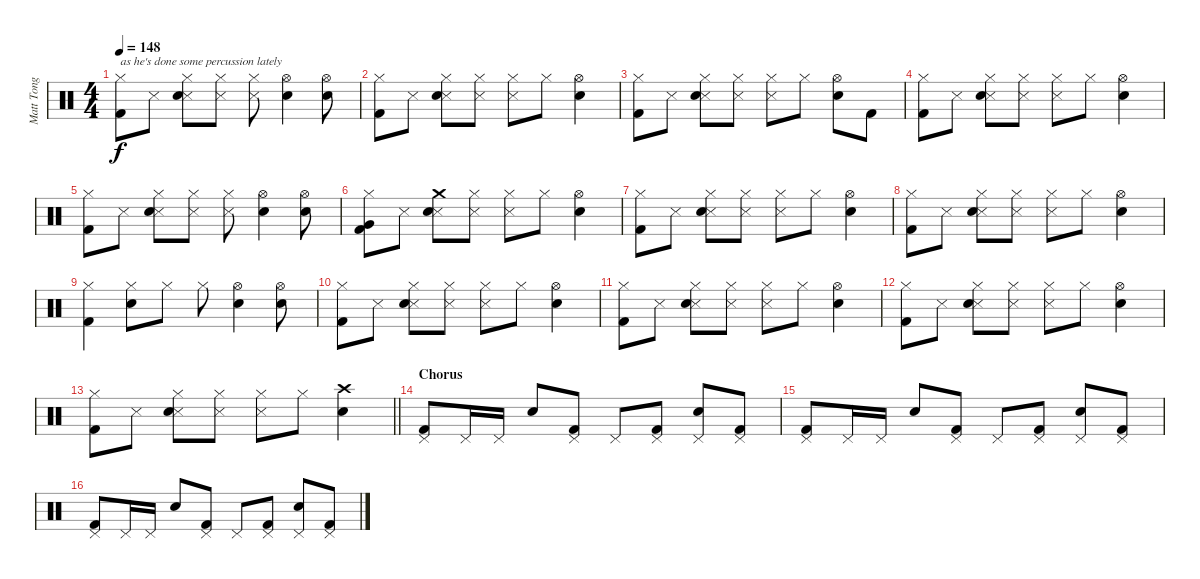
\track ("Matt Tong" "Matt Tong") {instrument percussion}
\staff {score}
\articulation defaults
\ts (4 4)
\tempo 148
\clef neutral
\ks c
("Hi-Hat (closed)" "Kick (hit) 2").8{txt "as he's done some percussion lately" dy f} "Snare (side stick) 3".8 ("Hi-Hat (closed)" "Snare (side stick) 3" "Electric Snare (hit)").8 ("Hi-Hat (closed)" "Snare (side stick) 3").8 ("Hi-Hat (closed)" "Snare (side stick) 3").8 ("Hi-Hat (open)" "Electric Snare (hit)").4 ("Hi-Hat (open)" "Electric Snare (hit)").8 |
("Hi-Hat (closed)" "Kick (hit) 2").8 "Snare (side stick) 3".8 ("Hi-Hat (closed)" "Snare (side stick) 3" "Electric Snare (hit)").8 ("Hi-Hat (closed)" "Snare (side stick) 3").8 ("Hi-Hat (closed)" "Snare (side stick) 3").8 "Hi-Hat (closed)".8 ("Hi-Hat (open)" "Electric Snare (hit)").4 |
("Hi-Hat (closed)" "Kick (hit) 2").8 "Snare (side stick) 3".8 ("Hi-Hat (closed)" "Snare (side stick) 3" "Electric Snare (hit)").8 ("Hi-Hat (closed)" "Snare (side stick) 3").8 ("Hi-Hat (closed)" "Snare (side stick) 3").8 "Hi-Hat (closed)".8 ("Hi-Hat (open)" "Electric Snare (hit)").8 "Kick (hit) 2".8 |
("Hi-Hat (closed)" "Kick (hit) 2").8 "Snare (side stick) 3".8 ("Hi-Hat (closed)" "Snare (side stick) 3" "Electric Snare (hit)").8 ("Hi-Hat (closed)" "Snare (side stick) 3").8 ("Hi-Hat (closed)" "Snare (side stick) 3").8 "Hi-Hat (closed)".8 ("Hi-Hat (open)" "Electric Snare (hit)").4 |
("Hi-Hat (closed)" "Kick (hit) 2").8 "Snare (side stick) 3".8 ("Hi-Hat (closed)" "Snare (side stick) 3" "Electric Snare (hit)").8 ("Hi-Hat (closed)" "Snare (side stick) 3").8 ("Hi-Hat (closed)" "Snare (side stick) 3").8 ("Hi-Hat (open)" "Electric Snare (hit)").4 ("Hi-Hat (open)" "Electric Snare (hit)").8 |
("Hi-Hat (closed)" "Very Low Tom (hit)" "Kick (hit) 2").8 "Snare (side stick) 3".8 ("Crash medium (hit)" "Snare (side stick) 3" "Electric Snare (hit)").8 ("Hi-Hat (closed)" "Snare (side stick) 3").8 ("Hi-Hat (closed)" "Snare (side stick) 3").8 "Hi-Hat (closed)".8 ("Hi-Hat (open)" "Electric Snare (hit)").4 |
("Hi-Hat (closed)" "Kick (hit) 2").8 "Snare (side stick) 3".8 ("Hi-Hat (closed)" "Snare (side stick) 3" "Electric Snare (hit)").8 ("Hi-Hat (closed)" "Snare (side stick) 3").8 ("Hi-Hat (closed)" "Snare (side stick) 3").8 "Hi-Hat (closed)".8 ("Hi-Hat (open)" "Electric Snare (hit)").4 |
("Hi-Hat (closed)" "Kick (hit) 2").8 "Snare (side stick) 3".8 ("Hi-Hat (closed)" "Snare (side stick) 3" "Electric Snare (hit)").8 ("Hi-Hat (closed)" "Snare (side stick) 3").8 ("Hi-Hat (closed)" "Snare (side stick) 3").8 "Hi-Hat (closed)".8 ("Hi-Hat (open)" "Electric Snare (hit)").4 |
("Hi-Hat (closed)" "Kick (hit) 2").4 ("Hi-Hat (closed)" "Electric Snare (hit)").8 "Hi-Hat (closed)".8 "Hi-Hat (closed)".8 ("Hi-Hat (open)" "Electric Snare (hit)").4 ("Hi-Hat (open)" "Electric Snare (hit)").8 |
("Hi-Hat (closed)" "Kick (hit) 2").8 "Snare (side stick) 3".8 ("Hi-Hat (closed)" "Snare (side stick) 3" "Electric Snare (hit)").8 ("Hi-Hat (closed)" "Snare (side stick) 3").8 ("Hi-Hat (closed)" "Snare (side stick) 3").8 "Hi-Hat (closed)".8 ("Hi-Hat (open)" "Electric Snare (hit)").4 |
("Hi-Hat (closed)" "Kick (hit) 2").8 "Snare (side stick) 3".8 ("Hi-Hat (closed)" "Snare (side stick) 3" "Electric Snare (hit)").8 ("Hi-Hat (closed)" "Snare (side stick) 3").8 ("Hi-Hat (closed)" "Snare (side stick) 3").8 "Hi-Hat (closed)".8 ("Hi-Hat (open)" "Electric Snare (hit)").4 |
("Hi-Hat (closed)" "Kick (hit) 2").8 "Snare (side stick) 3".8 ("Hi-Hat (closed)" "Snare (side stick) 3" "Electric Snare (hit)").8 ("Hi-Hat (closed)" "Snare (side stick) 3").8 ("Hi-Hat (closed)" "Snare (side stick) 3").8 "Hi-Hat (closed)".8 ("Hi-Hat (open)" "Electric Snare (hit)").4 |
\barLineRight lightlight
("Hi-Hat (closed)" "Kick (hit) 2").8 "Snare (side stick) 3".8 ("Hi-Hat (closed)" "Snare (side stick) 3" "Electric Snare (hit)").8 ("Hi-Hat (closed)" "Snare (side stick) 3").8 ("Hi-Hat (closed)" "Snare (side stick) 3").8 "Hi-Hat (closed)".8 ("Crash high (hit)" "Electric Snare (hit)").4 |
\section ("" "Chorus")
("Pedal Hi-Hat (hit)" "Kick (hit) 2").8 "Pedal Hi-Hat (hit)".16 "Pedal Hi-Hat (hit)".16 "Electric Snare (hit)".8 ("Pedal Hi-Hat (hit)" "Kick (hit) 2").8 "Pedal Hi-Hat (hit)".8 ("Pedal Hi-Hat (hit)" "Kick (hit) 2").8 ("Pedal Hi-Hat (hit)" "Electric Snare (hit)").8 ("Pedal Hi-Hat (hit)" "Kick (hit) 2").8 |
("Pedal Hi-Hat (hit)" "Kick (hit) 2").8 "Pedal Hi-Hat (hit)".16 "Pedal Hi-Hat (hit)".16 "Electric Snare (hit)".8 ("Pedal Hi-Hat (hit)" "Kick (hit) 2").8 "Pedal Hi-Hat (hit)".8 ("Pedal Hi-Hat (hit)" "Kick (hit) 2").8 ("Pedal Hi-Hat (hit)" "Electric Snare (hit)").8 ("Pedal Hi-Hat (hit)" "Kick (hit) 2").8 |
("Pedal Hi-Hat (hit)" "Kick (hit) 2").8 "Pedal Hi-Hat (hit)".16 "Pedal Hi-Hat (hit)".16 "Electric Snare (hit)".8 ("Pedal Hi-Hat (hit)" "Kick (hit) 2").8 "Pedal Hi-Hat (hit)".8 ("Pedal Hi-Hat (hit)" "Kick (hit) 2").8 ("Pedal Hi-Hat (hit)" "Electric Snare (hit)").8 ("Pedal Hi-Hat (hit)" "Kick (hit) 2").8
